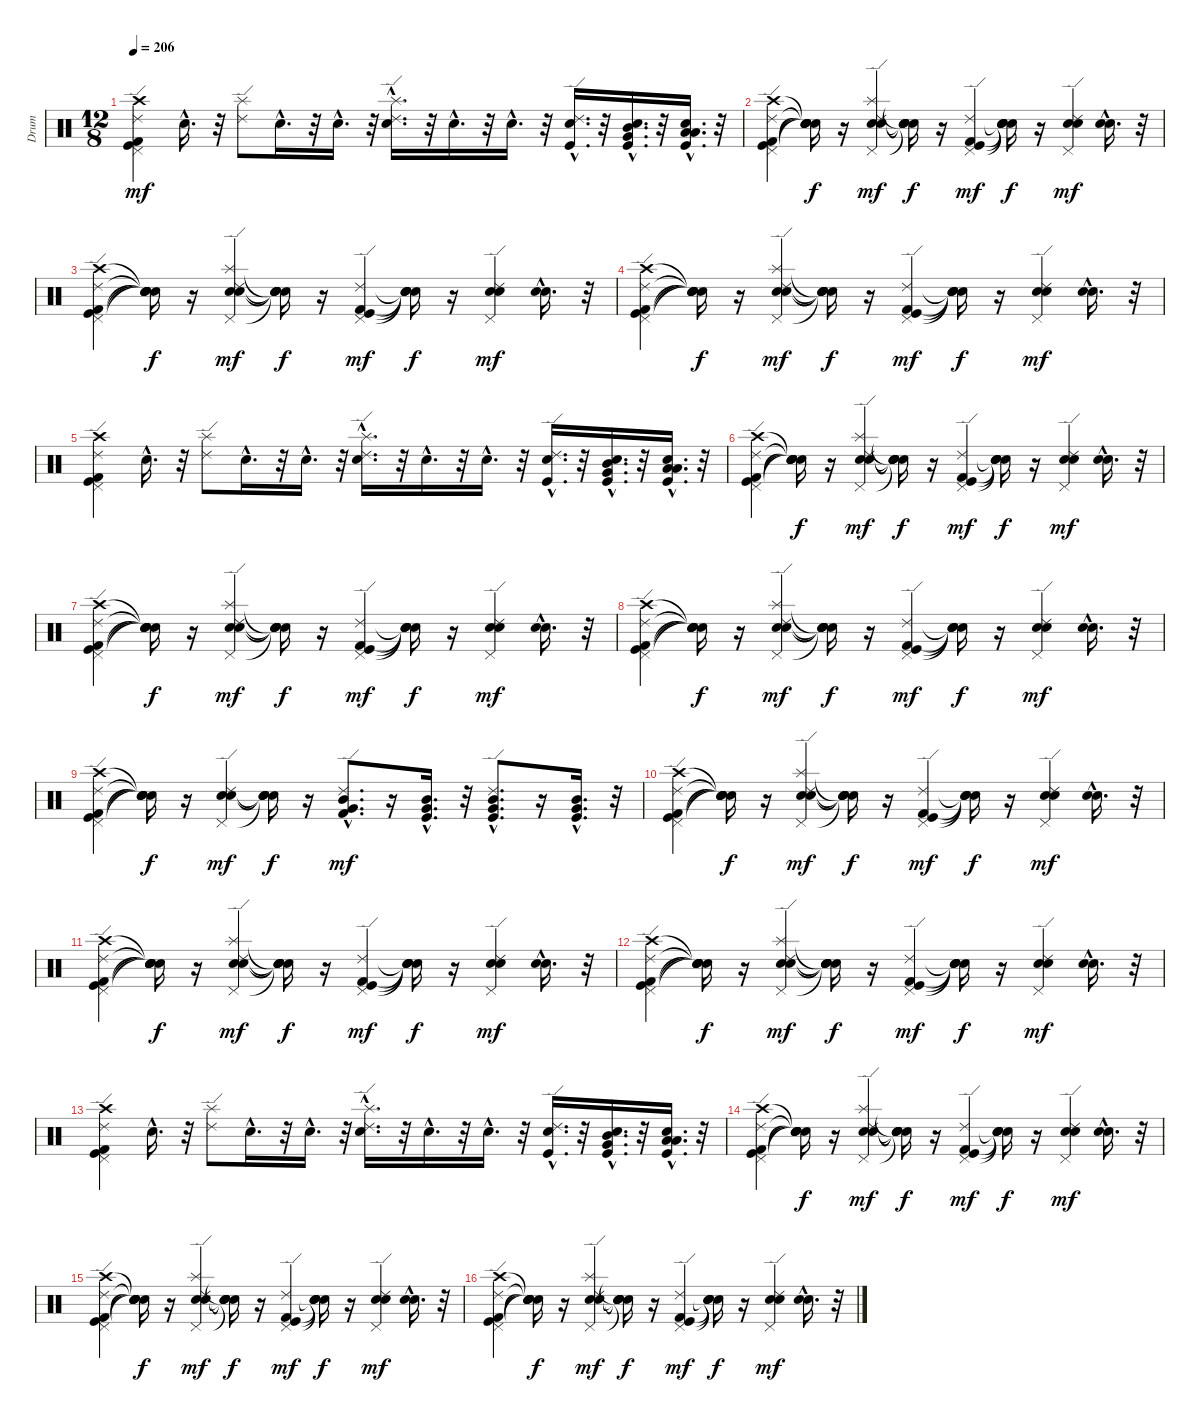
\track ("Drum" "Drum") {instrument percussion}
\staff {score}
\articulation defaults
\ts (12 8)
\tempo 206
\clef neutral
\ks c
("Kick (hit) 2" "Kick (hit)" "Pedal Hi-Hat (hit)" "Ride (edge) 2" "Crash high (hit)").4{dy mf} "Snare (hit) 2"{hac}.16{d} r.32 ("Ride (edge) 2" "Splash (hit)").8 "Snare (hit) 2"{hac}.16{d} r.32 "Snare (hit) 2"{hac}.16{d} r.32 ("Ride (edge) 2"{hac} "Splash (hit)"{hac} "Electric Snare (hit)"{hac}).16{d} r.32 "Electric Snare (hit)"{hac}.16{d} r.32 "Electric Snare (hit)"{hac}.16{d} r.32 ("Ride (edge) 2"{hac} "Kick (hit)"{hac} "Snare (hit) 2"{hac}).16{d} r.32 ("Very Low Tom (hit)"{hac} "Mid Tom (hit)"{hac} "Kick (hit)"{hac} "Snare (hit) 2"{hac}).16{d} r.32 ("Kick (hit)"{hac} "Low Tom (hit)"{hac} "Snare (hit) 2"{hac} "Low Floor Tom (hit)"{hac}).16{d} r.32 |
("Pedal Hi-Hat (hit)" "Kick (hit)" "Kick (hit) 2" "Ride (edge) 2" "Crash high (hit)").4 ("Snare (hit)"{t} "Snare (hit)"{t} "Snare (hit)"{t} "Snare (hit)"{t} "Snare (hit)"{t}).16{dy f} r.16 ("Snare (hit) 2" "Electric Snare (hit)" "Pedal Hi-Hat (hit)" "Ride (edge) 2" "Splash (hit)").4{dy mf} ("Snare (hit)"{t} "Snare (hit)"{t} "Snare (hit)"{t} "Snare (hit)"{t} "Snare (hit)"{t}).16{dy f} r.16 ("Pedal Hi-Hat (hit)" "Kick (hit) 2" "Kick (hit)" "Ride (edge) 2").4{dy mf} ("Snare (hit)"{t} "Snare (hit)"{t} "Snare (hit)"{t} "Snare (hit)"{t}).16{dy f} r.16 ("Electric Snare (hit)" "Snare (hit) 2" "Pedal Hi-Hat (hit)" "Ride (edge) 2").4{dy mf} ("Electric Snare (hit)"{hac} "Snare (hit) 2"{hac}).16{d} r.32 |
("Crash high (hit)" "Ride (edge) 2" "Kick (hit) 2" "Kick (hit)" "Pedal Hi-Hat (hit)").4 ("Snare (hit)"{t} "Snare (hit)"{t} "Snare (hit)"{t} "Snare (hit)"{t} "Snare (hit)"{t}).16{dy f} r.16 ("Splash (hit)" "Ride (edge) 2" "Pedal Hi-Hat (hit)" "Electric Snare (hit)" "Snare (hit) 2").4{dy mf} ("Snare (hit)"{t} "Snare (hit)"{t} "Snare (hit)"{t} "Snare (hit)"{t} "Snare (hit)"{t}).16{dy f} r.16 ("Ride (edge) 2" "Kick (hit)" "Kick (hit) 2" "Pedal Hi-Hat (hit)").4{dy mf} ("Snare (hit)"{t} "Snare (hit)"{t} "Snare (hit)"{t} "Snare (hit)"{t}).16{dy f} r.16 ("Ride (edge) 2" "Pedal Hi-Hat (hit)" "Snare (hit) 2" "Electric Snare (hit)").4{dy mf} ("Snare (hit) 2"{hac} "Electric Snare (hit)"{hac}).16{d} r.32 |
("Pedal Hi-Hat (hit)" "Kick (hit)" "Kick (hit) 2" "Ride (edge) 2" "Crash high (hit)").4 ("Snare (hit)"{t} "Snare (hit)"{t} "Snare (hit)"{t} "Snare (hit)"{t} "Snare (hit)"{t}).16{dy f} r.16 ("Snare (hit) 2" "Electric Snare (hit)" "Pedal Hi-Hat (hit)" "Ride (edge) 2" "Splash (hit)").4{dy mf} ("Snare (hit)"{t} "Snare (hit)"{t} "Snare (hit)"{t} "Snare (hit)"{t} "Snare (hit)"{t}).16{dy f} r.16 ("Pedal Hi-Hat (hit)" "Kick (hit) 2" "Kick (hit)" "Ride (edge) 2").4{dy mf} ("Snare (hit)"{t} "Snare (hit)"{t} "Snare (hit)"{t} "Snare (hit)"{t}).16{dy f} r.16 ("Electric Snare (hit)" "Snare (hit) 2" "Pedal Hi-Hat (hit)" "Ride (edge) 2").4{dy mf} ("Electric Snare (hit)"{hac} "Snare (hit) 2"{hac}).16{d} r.32 |
("Pedal Hi-Hat (hit)" "Kick (hit)" "Kick (hit) 2" "Ride (edge) 2" "Crash high (hit)").4 "Snare (hit) 2"{hac}.16{d} r.32 ("Ride (edge) 2" "Splash (hit)").8 "Snare (hit) 2"{hac}.16{d} r.32 "Snare (hit) 2"{hac}.16{d} r.32 ("Ride (edge) 2"{hac} "Splash (hit)"{hac} "Electric Snare (hit)"{hac}).16{d} r.32 "Electric Snare (hit)"{hac}.16{d} r.32 "Electric Snare (hit)"{hac}.16{d} r.32 ("Ride (edge) 2"{hac} "Kick (hit)"{hac} "Snare (hit) 2"{hac}).16{d} r.32 ("Very Low Tom (hit)"{hac} "Mid Tom (hit)"{hac} "Kick (hit)"{hac} "Snare (hit) 2"{hac}).16{d} r.32 ("Low Floor Tom (hit)"{hac} "Low Tom (hit)"{hac} "Kick (hit)"{hac} "Snare (hit) 2"{hac}).16{d} r.32 |
("Crash high (hit)" "Ride (edge) 2" "Kick (hit) 2" "Kick (hit)" "Pedal Hi-Hat (hit)").4 ("Snare (hit)"{t} "Snare (hit)"{t} "Snare (hit)"{t} "Snare (hit)"{t} "Snare (hit)"{t}).16{dy f} r.16 ("Splash (hit)" "Ride (edge) 2" "Pedal Hi-Hat (hit)" "Electric Snare (hit)" "Snare (hit) 2").4{dy mf} ("Snare (hit)"{t} "Snare (hit)"{t} "Snare (hit)"{t} "Snare (hit)"{t} "Snare (hit)"{t}).16{dy f} r.16 ("Ride (edge) 2" "Kick (hit)" "Kick (hit) 2" "Pedal Hi-Hat (hit)").4{dy mf} ("Snare (hit)"{t} "Snare (hit)"{t} "Snare (hit)"{t} "Snare (hit)"{t}).16{dy f} r.16 ("Ride (edge) 2" "Pedal Hi-Hat (hit)" "Snare (hit) 2" "Electric Snare (hit)").4{dy mf} ("Snare (hit) 2"{hac} "Electric Snare (hit)"{hac}).16{d} r.32 |
("Pedal Hi-Hat (hit)" "Kick (hit)" "Kick (hit) 2" "Ride (edge) 2" "Crash high (hit)").4 ("Snare (hit)"{t} "Snare (hit)"{t} "Snare (hit)"{t} "Snare (hit)"{t} "Snare (hit)"{t}).16{dy f} r.16 ("Snare (hit) 2" "Electric Snare (hit)" "Pedal Hi-Hat (hit)" "Ride (edge) 2" "Splash (hit)").4{dy mf} ("Snare (hit)"{t} "Snare (hit)"{t} "Snare (hit)"{t} "Snare (hit)"{t} "Snare (hit)"{t}).16{dy f} r.16 ("Pedal Hi-Hat (hit)" "Kick (hit) 2" "Kick (hit)" "Ride (edge) 2").4{dy mf} ("Snare (hit)"{t} "Snare (hit)"{t} "Snare (hit)"{t} "Snare (hit)"{t}).16{dy f} r.16 ("Electric Snare (hit)" "Snare (hit) 2" "Pedal Hi-Hat (hit)" "Ride (edge) 2").4{dy mf} ("Electric Snare (hit)"{hac} "Snare (hit) 2"{hac}).16{d} r.32 |
("Crash high (hit)" "Ride (edge) 2" "Kick (hit) 2" "Kick (hit)" "Pedal Hi-Hat (hit)").4 ("Snare (hit)"{t} "Snare (hit)"{t} "Snare (hit)"{t} "Snare (hit)"{t} "Snare (hit)"{t}).16{dy f} r.16 ("Splash (hit)" "Ride (edge) 2" "Pedal Hi-Hat (hit)" "Electric Snare (hit)" "Snare (hit) 2").4{dy mf} ("Snare (hit)"{t} "Snare (hit)"{t} "Snare (hit)"{t} "Snare (hit)"{t} "Snare (hit)"{t}).16{dy f} r.16 ("Ride (edge) 2" "Kick (hit)" "Kick (hit) 2" "Pedal Hi-Hat (hit)").4{dy mf} ("Snare (hit)"{t} "Snare (hit)"{t} "Snare (hit)"{t} "Snare (hit)"{t}).16{dy f} r.16 ("Ride (edge) 2" "Pedal Hi-Hat (hit)" "Snare (hit) 2" "Electric Snare (hit)").4{dy mf} ("Snare (hit) 2"{hac} "Electric Snare (hit)"{hac}).16{d} r.32 |
("Crash high (hit)" "Ride (edge) 2" "Kick (hit) 2" "Kick (hit)" "Pedal Hi-Hat (hit)").4 ("Snare (hit)"{t} "Snare (hit)"{t} "Snare (hit)"{t} "Snare (hit)"{t} "Snare (hit)"{t}).16{dy f} r.16 ("Electric Snare (hit)" "Snare (hit) 2" "Pedal Hi-Hat (hit)" "Ride (edge) 2").4{dy mf} ("Snare (hit)"{t} "Snare (hit)"{t} "Snare (hit)"{t} "Snare (hit)"{t}).16{dy f} r.16 ("Mid Tom (hit)"{hac} "Very Low Tom (hit)"{hac} "Kick (hit) 2"{hac} "Ride (edge) 2"{hac}).8{d dy mf} r.16 ("Mid Tom (hit)"{hac} "Very Low Tom (hit)"{hac} "Kick (hit)"{hac}).16{d} r.32 ("Mid Tom (hit)"{hac} "Very Low Tom (hit)"{hac} "Ride (edge) 2"{hac} "Kick (hit)"{hac}).8{d} r.16 ("Mid Tom (hit)"{hac} "Very Low Tom (hit)"{hac} "Kick (hit)"{hac}).16{d} r.32 |
("Pedal Hi-Hat (hit)" "Kick (hit)" "Kick (hit) 2" "Ride (edge) 2" "Crash high (hit)").4 ("Snare (hit)"{t} "Snare (hit)"{t} "Snare (hit)"{t} "Snare (hit)"{t} "Snare (hit)"{t}).16{dy f} r.16 ("Snare (hit) 2" "Electric Snare (hit)" "Pedal Hi-Hat (hit)" "Ride (edge) 2" "Splash (hit)").4{dy mf} ("Snare (hit)"{t} "Snare (hit)"{t} "Snare (hit)"{t} "Snare (hit)"{t} "Snare (hit)"{t}).16{dy f} r.16 ("Pedal Hi-Hat (hit)" "Kick (hit) 2" "Kick (hit)" "Ride (edge) 2").4{dy mf} ("Snare (hit)"{t} "Snare (hit)"{t} "Snare (hit)"{t} "Snare (hit)"{t}).16{dy f} r.16 ("Electric Snare (hit)" "Snare (hit) 2" "Pedal Hi-Hat (hit)" "Ride (edge) 2").4{dy mf} ("Electric Snare (hit)"{hac} "Snare (hit) 2"{hac}).16{d} r.32 |
("Crash high (hit)" "Ride (edge) 2" "Kick (hit) 2" "Kick (hit)" "Pedal Hi-Hat (hit)").4 ("Snare (hit)"{t} "Snare (hit)"{t} "Snare (hit)"{t} "Snare (hit)"{t} "Snare (hit)"{t}).16{dy f} r.16 ("Splash (hit)" "Ride (edge) 2" "Pedal Hi-Hat (hit)" "Electric Snare (hit)" "Snare (hit) 2").4{dy mf} ("Snare (hit)"{t} "Snare (hit)"{t} "Snare (hit)"{t} "Snare (hit)"{t} "Snare (hit)"{t}).16{dy f} r.16 ("Ride (edge) 2" "Kick (hit)" "Kick (hit) 2" "Pedal Hi-Hat (hit)").4{dy mf} ("Snare (hit)"{t} "Snare (hit)"{t} "Snare (hit)"{t} "Snare (hit)"{t}).16{dy f} r.16 ("Ride (edge) 2" "Pedal Hi-Hat (hit)" "Snare (hit) 2" "Electric Snare (hit)").4{dy mf} ("Snare (hit) 2"{hac} "Electric Snare (hit)"{hac}).16{d} r.32 |
("Pedal Hi-Hat (hit)" "Kick (hit)" "Kick (hit) 2" "Ride (edge) 2" "Crash high (hit)").4 ("Snare (hit)"{t} "Snare (hit)"{t} "Snare (hit)"{t} "Snare (hit)"{t} "Snare (hit)"{t}).16{dy f} r.16 ("Snare (hit) 2" "Electric Snare (hit)" "Pedal Hi-Hat (hit)" "Ride (edge) 2" "Splash (hit)").4{dy mf} ("Snare (hit)"{t} "Snare (hit)"{t} "Snare (hit)"{t} "Snare (hit)"{t} "Snare (hit)"{t}).16{dy f} r.16 ("Pedal Hi-Hat (hit)" "Kick (hit) 2" "Kick (hit)" "Ride (edge) 2").4{dy mf} ("Snare (hit)"{t} "Snare (hit)"{t} "Snare (hit)"{t} "Snare (hit)"{t}).16{dy f} r.16 ("Electric Snare (hit)" "Snare (hit) 2" "Pedal Hi-Hat (hit)" "Ride (edge) 2").4{dy mf} ("Electric Snare (hit)"{hac} "Snare (hit) 2"{hac}).16{d} r.32 |
("Pedal Hi-Hat (hit)" "Kick (hit)" "Kick (hit) 2" "Ride (edge) 2" "Crash high (hit)").4 "Snare (hit) 2"{hac}.16{d} r.32 ("Ride (edge) 2" "Splash (hit)").8 "Snare (hit) 2"{hac}.16{d} r.32 "Snare (hit) 2"{hac}.16{d} r.32 ("Ride (edge) 2"{hac} "Splash (hit)"{hac} "Electric Snare (hit)"{hac}).16{d} r.32 "Electric Snare (hit)"{hac}.16{d} r.32 "Electric Snare (hit)"{hac}.16{d} r.32 ("Ride (edge) 2"{hac} "Kick (hit)"{hac} "Snare (hit) 2"{hac}).16{d} r.32 ("Very Low Tom (hit)"{hac} "Mid Tom (hit)"{hac} "Kick (hit)"{hac} "Snare (hit) 2"{hac}).16{d} r.32 ("Low Floor Tom (hit)"{hac} "Low Tom (hit)"{hac} "Kick (hit)"{hac} "Snare (hit) 2"{hac}).16{d} r.32 |
("Pedal Hi-Hat (hit)" "Kick (hit)" "Kick (hit) 2" "Ride (edge) 2" "Crash high (hit)").4 ("Snare (hit)"{t} "Snare (hit)"{t} "Snare (hit)"{t} "Snare (hit)"{t} "Snare (hit)"{t}).16{dy f} r.16 ("Snare (hit) 2" "Electric Snare (hit)" "Pedal Hi-Hat (hit)" "Ride (edge) 2" "Splash (hit)").4{dy mf} ("Snare (hit)"{t} "Snare (hit)"{t} "Snare (hit)"{t} "Snare (hit)"{t} "Snare (hit)"{t}).16{dy f} r.16 ("Pedal Hi-Hat (hit)" "Kick (hit) 2" "Kick (hit)" "Ride (edge) 2").4{dy mf} ("Snare (hit)"{t} "Snare (hit)"{t} "Snare (hit)"{t} "Snare (hit)"{t}).16{dy f} r.16 ("Electric Snare (hit)" "Snare (hit) 2" "Pedal Hi-Hat (hit)" "Ride (edge) 2").4{dy mf} ("Electric Snare (hit)"{hac} "Snare (hit) 2"{hac}).16{d} r.32 |
("Crash high (hit)" "Ride (edge) 2" "Kick (hit) 2" "Kick (hit)" "Pedal Hi-Hat (hit)").4 ("Snare (hit)"{t} "Snare (hit)"{t} "Snare (hit)"{t} "Snare (hit)"{t} "Snare (hit)"{t}).16{dy f} r.16 ("Splash (hit)" "Ride (edge) 2" "Pedal Hi-Hat (hit)" "Electric Snare (hit)" "Snare (hit) 2").4{dy mf} ("Snare (hit)"{t} "Snare (hit)"{t} "Snare (hit)"{t} "Snare (hit)"{t} "Snare (hit)"{t}).16{dy f} r.16 ("Ride (edge) 2" "Kick (hit)" "Kick (hit) 2" "Pedal Hi-Hat (hit)").4{dy mf} ("Snare (hit)"{t} "Snare (hit)"{t} "Snare (hit)"{t} "Snare (hit)"{t}).16{dy f} r.16 ("Ride (edge) 2" "Pedal Hi-Hat (hit)" "Snare (hit) 2" "Electric Snare (hit)").4{dy mf} ("Snare (hit) 2"{hac} "Electric Snare (hit)"{hac}).16{d} r.32 |
("Pedal Hi-Hat (hit)" "Kick (hit)" "Kick (hit) 2" "Ride (edge) 2" "Crash high (hit)").4 ("Snare (hit)"{t} "Snare (hit)"{t} "Snare (hit)"{t} "Snare (hit)"{t} "Snare (hit)"{t}).16{dy f} r.16 ("Snare (hit) 2" "Electric Snare (hit)" "Pedal Hi-Hat (hit)" "Ride (edge) 2" "Splash (hit)").4{dy mf} ("Snare (hit)"{t} "Snare (hit)"{t} "Snare (hit)"{t} "Snare (hit)"{t} "Snare (hit)"{t}).16{dy f} r.16 ("Pedal Hi-Hat (hit)" "Kick (hit) 2" "Kick (hit)" "Ride (edge) 2").4{dy mf} ("Snare (hit)"{t} "Snare (hit)"{t} "Snare (hit)"{t} "Snare (hit)"{t}).16{dy f} r.16 ("Electric Snare (hit)" "Snare (hit) 2" "Pedal Hi-Hat (hit)" "Ride (edge) 2").4{dy mf} ("Electric Snare (hit)"{hac} "Snare (hit) 2"{hac}).16{d} r.32
